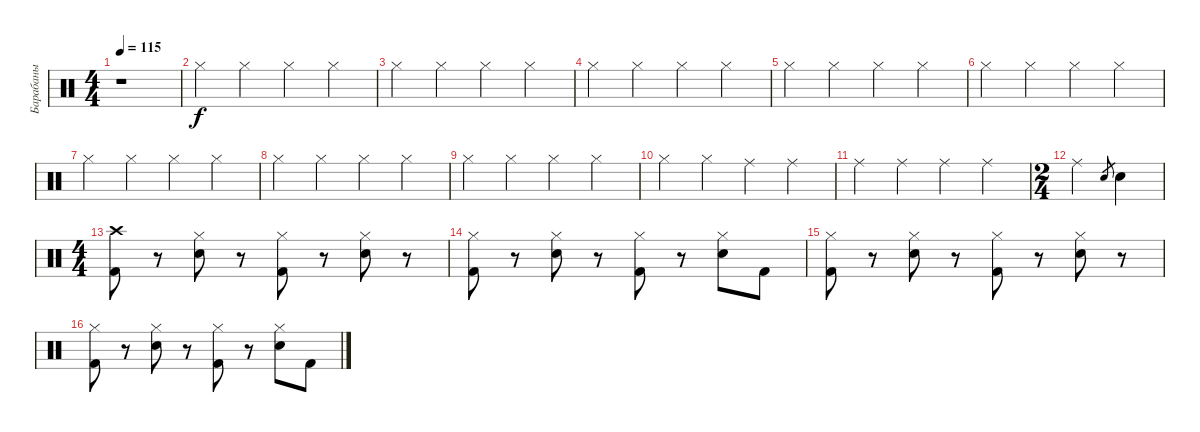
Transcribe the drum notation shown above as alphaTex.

\track ("Барабаны" "Барабаны") {instrument percussion}
\staff {score}
\articulation defaults
\ts (4 4)
\tempo 115
\clef neutral
\ks c
r.1{dy f} |
"Hi-Hat (closed)".4 "Hi-Hat (closed)".4 "Hi-Hat (closed)".4 "Hi-Hat (closed)".4 |
"Hi-Hat (closed)".4 "Hi-Hat (closed)".4 "Hi-Hat (closed)".4 "Hi-Hat (closed)".4 |
"Hi-Hat (closed)".4 "Hi-Hat (closed)".4 "Hi-Hat (closed)".4 "Hi-Hat (closed)".4 |
"Hi-Hat (closed)".4 "Hi-Hat (closed)".4 "Hi-Hat (closed)".4 "Hi-Hat (closed)".4 |
"Hi-Hat (closed)".4 "Hi-Hat (closed)".4 "Hi-Hat (closed)".4 "Hi-Hat (closed)".4 |
"Hi-Hat (closed)".4 "Hi-Hat (closed)".4 "Hi-Hat (closed)".4 "Hi-Hat (closed)".4 |
"Hi-Hat (closed)".4 "Hi-Hat (closed)".4 "Hi-Hat (closed)".4 "Hi-Hat (closed)".4 |
"Hi-Hat (closed)".4 "Hi-Hat (closed)".4 "Hi-Hat (closed)".4 "Hi-Hat (closed)".4 |
"Hi-Hat (closed)".4 "Hi-Hat (closed)".4 "Ride (middle)".4 "Ride (middle)".4 |
"Ride (middle)".4 "Ride (middle)".4 "Ride (middle)".4 "Ride (middle)".4 |
\ts (2 4)
"Ride (middle)".4 "Snare (hit) 2".8{gr} "Snare (hit) 2".4 |
\ts (4 4)
("Kick (hit) 2" "Crash high (hit)").8 r.8 ("Snare (hit) 2" "Hi-Hat (closed)").8 r.8 ("Kick (hit) 2" "Hi-Hat (closed)").8 r.8 ("Snare (hit) 2" "Hi-Hat (closed)").8 r.8 |
("Kick (hit) 2" "Hi-Hat (closed)").8 r.8 ("Snare (hit) 2" "Hi-Hat (closed)").8 r.8 ("Kick (hit) 2" "Hi-Hat (closed)").8 r.8 ("Snare (hit) 2" "Hi-Hat (closed)").8 "Kick (hit) 2".8 |
("Kick (hit) 2" "Hi-Hat (closed)").8 r.8 ("Snare (hit) 2" "Hi-Hat (closed)").8 r.8 ("Kick (hit) 2" "Hi-Hat (closed)").8 r.8 ("Snare (hit) 2" "Hi-Hat (closed)").8 r.8 |
("Kick (hit) 2" "Hi-Hat (closed)").8 r.8 ("Snare (hit) 2" "Hi-Hat (closed)").8 r.8 ("Kick (hit) 2" "Hi-Hat (closed)").8 r.8 ("Snare (hit) 2" "Hi-Hat (closed)").8 "Kick (hit) 2".8
